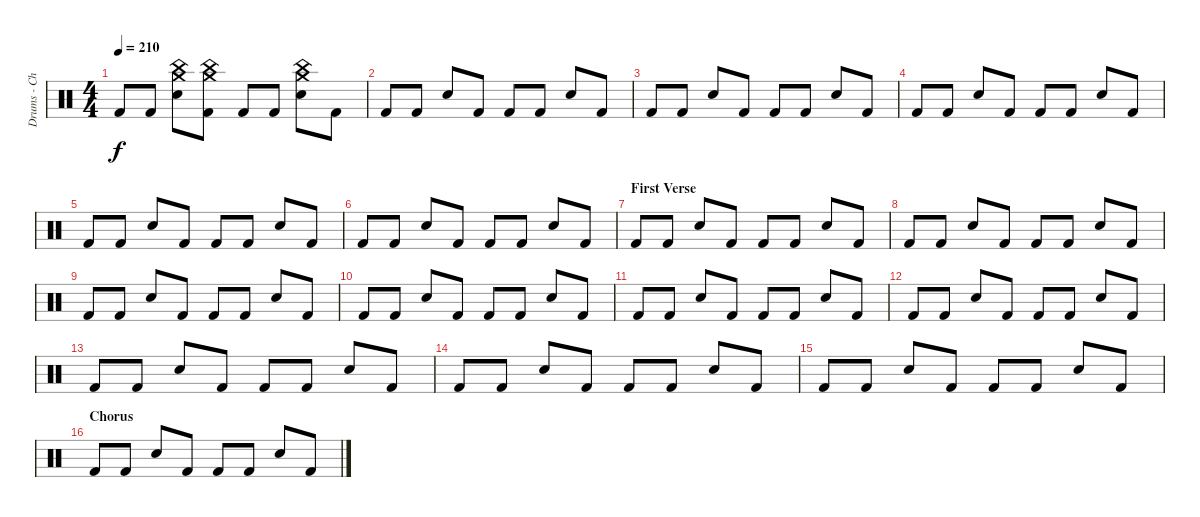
\track ("Drums - Chad Smith" "Drums - Ch") {instrument percussion}
\staff {score}
\articulation defaults
\ts (4 4)
\tempo 210
\clef neutral
\ks c "Kick (hit) 2".8{dy f} "Kick (hit) 2".8
("Crash medium (hit)" "China (hit)" "Electric Snare (hit)").8 ("Crash medium (hit)" "China (hit)" "Kick (hit) 2").8 "Kick (hit) 2".8 "Kick (hit) 2".8 ("China (hit)" "Crash medium (hit)" "Electric Snare (hit)").8 "Kick (hit) 2".8 |
"Kick (hit) 2".8 "Kick (hit) 2".8 "Electric Snare (hit)".8 "Kick (hit) 2".8 "Kick (hit) 2".8 "Kick (hit) 2".8 "Electric Snare (hit)".8 "Kick (hit) 2".8 |
"Kick (hit) 2".8 "Kick (hit) 2".8 "Electric Snare (hit)".8 "Kick (hit) 2".8 "Kick (hit) 2".8 "Kick (hit) 2".8 "Electric Snare (hit)".8 "Kick (hit) 2".8 |
"Kick (hit) 2".8 "Kick (hit) 2".8 "Electric Snare (hit)".8 "Kick (hit) 2".8 "Kick (hit) 2".8 "Kick (hit) 2".8 "Electric Snare (hit)".8 "Kick (hit) 2".8 |
"Kick (hit) 2".8 "Kick (hit) 2".8 "Electric Snare (hit)".8 "Kick (hit) 2".8 "Kick (hit) 2".8 "Kick (hit) 2".8 "Electric Snare (hit)".8 "Kick (hit) 2".8 |
"Kick (hit) 2".8 "Kick (hit) 2".8 "Electric Snare (hit)".8 "Kick (hit) 2".8 "Kick (hit) 2".8 "Kick (hit) 2".8 "Electric Snare (hit)".8 "Kick (hit) 2".8 |
\section ("" "First Verse")
"Kick (hit) 2".8 "Kick (hit) 2".8 "Electric Snare (hit)".8 "Kick (hit) 2".8 "Kick (hit) 2".8 "Kick (hit) 2".8 "Electric Snare (hit)".8 "Kick (hit) 2".8 |
"Kick (hit) 2".8 "Kick (hit) 2".8 "Electric Snare (hit)".8 "Kick (hit) 2".8 "Kick (hit) 2".8 "Kick (hit) 2".8 "Electric Snare (hit)".8 "Kick (hit) 2".8 |
"Kick (hit) 2".8 "Kick (hit) 2".8 "Electric Snare (hit)".8 "Kick (hit) 2".8 "Kick (hit) 2".8 "Kick (hit) 2".8 "Electric Snare (hit)".8 "Kick (hit) 2".8 |
"Kick (hit) 2".8 "Kick (hit) 2".8 "Electric Snare (hit)".8 "Kick (hit) 2".8 "Kick (hit) 2".8 "Kick (hit) 2".8 "Electric Snare (hit)".8 "Kick (hit) 2".8 |
"Kick (hit) 2".8 "Kick (hit) 2".8 "Electric Snare (hit)".8 "Kick (hit) 2".8 "Kick (hit) 2".8 "Kick (hit) 2".8 "Electric Snare (hit)".8 "Kick (hit) 2".8 |
"Kick (hit) 2".8 "Kick (hit) 2".8 "Electric Snare (hit)".8 "Kick (hit) 2".8 "Kick (hit) 2".8 "Kick (hit) 2".8 "Electric Snare (hit)".8 "Kick (hit) 2".8 |
"Kick (hit) 2".8 "Kick (hit) 2".8 "Electric Snare (hit)".8 "Kick (hit) 2".8 "Kick (hit) 2".8 "Kick (hit) 2".8 "Electric Snare (hit)".8 "Kick (hit) 2".8 |
"Kick (hit) 2".8 "Kick (hit) 2".8 "Electric Snare (hit)".8 "Kick (hit) 2".8 "Kick (hit) 2".8 "Kick (hit) 2".8 "Electric Snare (hit)".8 "Kick (hit) 2".8 |
"Kick (hit) 2".8 "Kick (hit) 2".8 "Electric Snare (hit)".8 "Kick (hit) 2".8 "Kick (hit) 2".8 "Kick (hit) 2".8 "Electric Snare (hit)".8 "Kick (hit) 2".8 |
\section ("" "Chorus")
"Kick (hit) 2".8 "Kick (hit) 2".8 "Electric Snare (hit)".8 "Kick (hit) 2".8 "Kick (hit) 2".8 "Kick (hit) 2".8 "Electric Snare (hit)".8 "Kick (hit) 2".8
